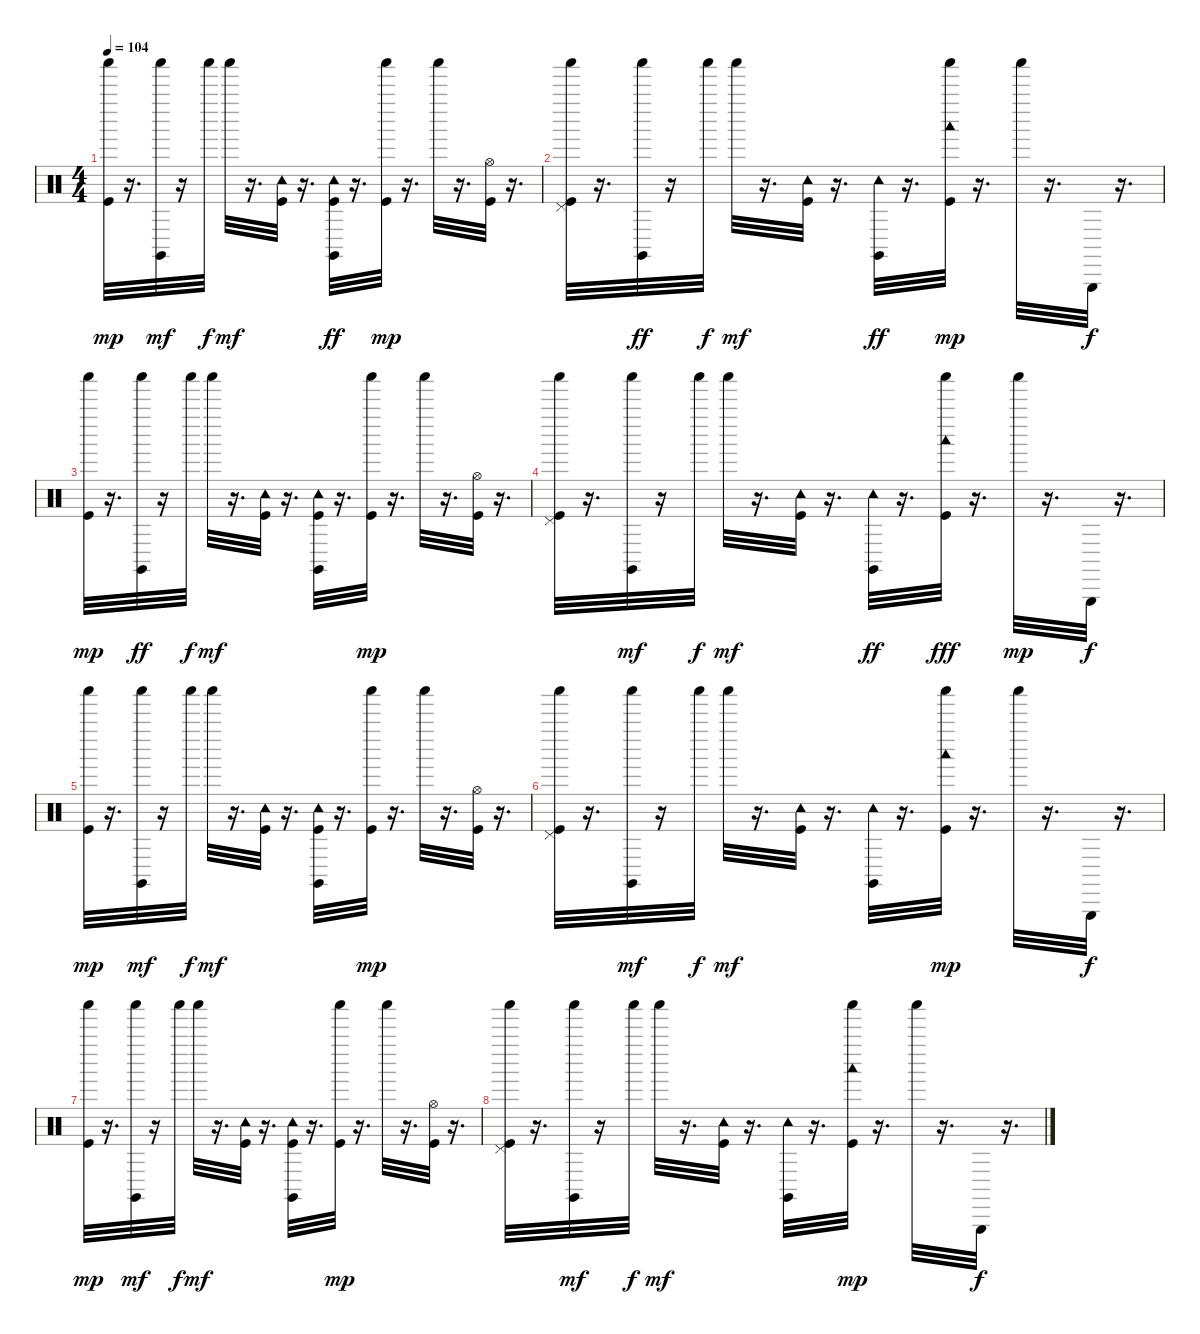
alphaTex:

\track "" {instrument percussion}
\staff {score}
\articulation defaults
\ts (4 4)
\tempo 104
\clef neutral
\ks c
("Shaker (hit)" "Kick (hit)").32{dy mp} r.16{d} ("Claves (hit)" "Shaker (hit)").32{dy mf} r.16 "Shaker (hit)".32{dy f} "Shaker (hit)".32{dy mf} r.16{d} ("Kick (hit)" "Tambourine (hit)").32 r.16{d} ("Tambourine (hit)" "Claves (hit)" "Kick (hit)").32{dy ff} r.16{d} ("Kick (hit)" "Shaker (hit)").32{dy mp} r.16{d} "Shaker (hit)".32 r.16{d} ("Hi-Hat (open)" "Kick (hit)").32 r.16{d} |
("Kick (hit)" "Pedal Hi-Hat (hit)" "Shaker (hit)").32 r.16{d} ("Shaker (hit)" "Claves (hit)").32{dy ff} r.16 "Shaker (hit)".32{dy f} "Shaker (hit)".32{dy mf} r.16{d} ("Tambourine (hit)" "Kick (hit)").32 r.16{d} ("Tambourine (hit)" "Claves (hit)").32{dy ff} r.16{d} ("Woodblock low (hit)" "Shaker (hit)" "Kick (hit)").32{dy mp} r.16{d} "Shaker (hit)".32 r.16{d} "Triangle (hit)".32{dy f} r.16{d} |
("Shaker (hit)" "Kick (hit)").32{dy mp} r.16{d} ("Shaker (hit)" "Claves (hit)").32{dy ff} r.16 "Shaker (hit)".32{dy f} "Shaker (hit)".32{dy mf} r.16{d} ("Kick (hit)" "Tambourine (hit)").32 r.16{d} ("Kick (hit)" "Claves (hit)" "Tambourine (hit)").32 r.16{d} ("Shaker (hit)" "Kick (hit)").32{dy mp} r.16{d} "Shaker (hit)".32 r.16{d} ("Kick (hit)" "Hi-Hat (open)").32 r.16{d} |
("Pedal Hi-Hat (hit)" "Kick (hit)" "Shaker (hit)").32 r.16{d} ("Claves (hit)" "Shaker (hit)").32{dy mf} r.16 "Shaker (hit)".32{dy f} "Shaker (hit)".32{dy mf} r.16{d} ("Tambourine (hit)" "Kick (hit)").32 r.16{d} ("Tambourine (hit)" "Claves (hit)").32{dy ff} r.16{d} ("Shaker (hit)" "Woodblock low (hit)" "Kick (hit)").32{dy fff} r.16{d} "Shaker (hit)".32{dy mp} r.16{d} "Triangle (hit)".32{dy f} r.16{d} |
("Shaker (hit)" "Kick (hit)").32{dy mp} r.16{d} ("Claves (hit)" "Shaker (hit)").32{dy mf} r.16 "Shaker (hit)".32{dy f} "Shaker (hit)".32{dy mf} r.16{d} ("Kick (hit)" "Tambourine (hit)").32 r.16{d} ("Claves (hit)" "Tambourine (hit)" "Kick (hit)").32 r.16{d} ("Shaker (hit)" "Kick (hit)").32{dy mp} r.16{d} "Shaker (hit)".32 r.16{d} ("Hi-Hat (open)" "Kick (hit)").32 r.16{d} |
("Pedal Hi-Hat (hit)" "Kick (hit)" "Shaker (hit)").32 r.16{d} ("Claves (hit)" "Shaker (hit)").32{dy mf} r.16 "Shaker (hit)".32{dy f} "Shaker (hit)".32{dy mf} r.16{d} ("Kick (hit)" "Tambourine (hit)").32 r.16{d} ("Claves (hit)" "Tambourine (hit)").32 r.16{d} ("Woodblock low (hit)" "Kick (hit)" "Shaker (hit)").32{dy mp} r.16{d} "Shaker (hit)".32 r.16{d} "Triangle (hit)".32{dy f} r.16{d} |
("Shaker (hit)" "Kick (hit)").32{dy mp} r.16{d} ("Claves (hit)" "Shaker (hit)").32{dy mf} r.16 "Shaker (hit)".32{dy f} "Shaker (hit)".32{dy mf} r.16{d} ("Kick (hit)" "Tambourine (hit)").32 r.16{d} ("Claves (hit)" "Tambourine (hit)" "Kick (hit)").32 r.16{d} ("Shaker (hit)" "Kick (hit)").32{dy mp} r.16{d} "Shaker (hit)".32 r.16{d} ("Hi-Hat (open)" "Kick (hit)").32 r.16{d} |
("Pedal Hi-Hat (hit)" "Kick (hit)" "Shaker (hit)").32 r.16{d} ("Claves (hit)" "Shaker (hit)").32{dy mf} r.16 "Shaker (hit)".32{dy f} "Shaker (hit)".32{dy mf} r.16{d} ("Kick (hit)" "Tambourine (hit)").32 r.16{d} ("Claves (hit)" "Tambourine (hit)").32 r.16{d} ("Woodblock low (hit)" "Kick (hit)" "Shaker (hit)").32{dy mp} r.16{d} "Shaker (hit)".32 r.16{d} "Triangle (hit)".32{dy f} r.16{d}
